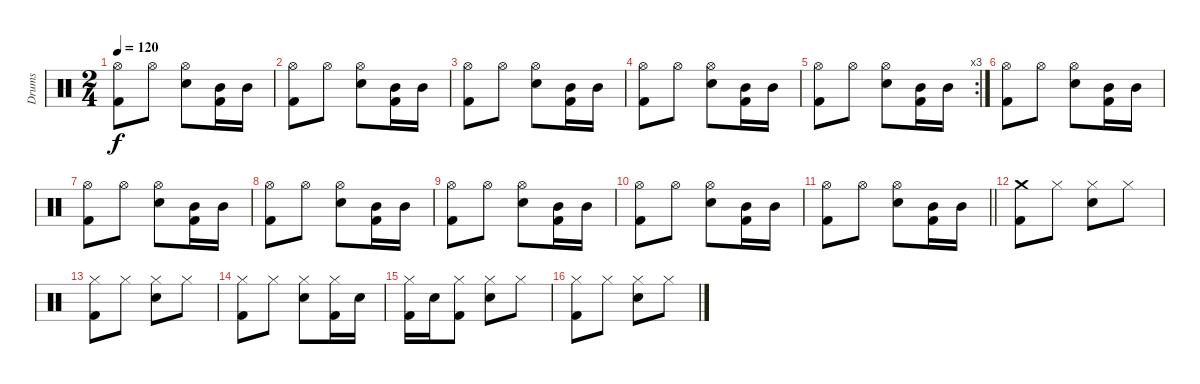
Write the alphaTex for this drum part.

\track ("Drums" "Drums") {instrument percussion}
\staff {score}
\articulation defaults
\ts (2 4)
\tempo 120
\clef neutral
\ks c
("Kick (hit) 2" "Hi-Hat (open)").8{dy f} "Hi-Hat (open)".8 ("Electric Snare (hit)" "Hi-Hat (open)").8 ("Mid Tom (hit)" "Kick (hit) 2").16 "Mid Tom (hit)".16 |
("Kick (hit) 2" "Hi-Hat (open)").8 "Hi-Hat (open)".8 ("Electric Snare (hit)" "Hi-Hat (open)").8 ("Mid Tom (hit)" "Kick (hit) 2").16 "Mid Tom (hit)".16 |
("Kick (hit) 2" "Hi-Hat (open)").8 "Hi-Hat (open)".8 ("Electric Snare (hit)" "Hi-Hat (open)").8 ("Mid Tom (hit)" "Kick (hit) 2").16 "Mid Tom (hit)".16 |
("Kick (hit) 2" "Hi-Hat (open)").8 "Hi-Hat (open)".8 ("Electric Snare (hit)" "Hi-Hat (open)").8 ("Mid Tom (hit)" "Kick (hit) 2").16 "Mid Tom (hit)".16 |
\rc 3
("Kick (hit) 2" "Hi-Hat (open)").8 "Hi-Hat (open)".8 ("Electric Snare (hit)" "Hi-Hat (open)").8 ("Mid Tom (hit)" "Kick (hit) 2").16 "Mid Tom (hit)".16 |
("Kick (hit) 2" "Hi-Hat (open)").8 "Hi-Hat (open)".8 ("Electric Snare (hit)" "Hi-Hat (open)").8 ("Mid Tom (hit)" "Kick (hit) 2").16 "Mid Tom (hit)".16 |
("Kick (hit) 2" "Hi-Hat (open)").8 "Hi-Hat (open)".8 ("Electric Snare (hit)" "Hi-Hat (open)").8 ("Mid Tom (hit)" "Kick (hit) 2").16 "Mid Tom (hit)".16 |
("Kick (hit) 2" "Hi-Hat (open)").8 "Hi-Hat (open)".8 ("Electric Snare (hit)" "Hi-Hat (open)").8 ("Mid Tom (hit)" "Kick (hit) 2").16 "Mid Tom (hit)".16 |
("Kick (hit) 2" "Hi-Hat (open)").8 "Hi-Hat (open)".8 ("Electric Snare (hit)" "Hi-Hat (open)").8 ("Mid Tom (hit)" "Kick (hit) 2").16 "Mid Tom (hit)".16 |
("Kick (hit) 2" "Hi-Hat (open)").8 "Hi-Hat (open)".8 ("Electric Snare (hit)" "Hi-Hat (open)").8 ("Mid Tom (hit)" "Kick (hit) 2").16 "Mid Tom (hit)".16 |
\barLineRight lightlight
("Kick (hit) 2" "Hi-Hat (open)").8 "Hi-Hat (open)".8 ("Electric Snare (hit)" "Hi-Hat (open)").8 ("Mid Tom (hit)" "Kick (hit) 2").16 "Mid Tom (hit)".16 |
("Kick (hit) 2" "Crash medium (hit)").8 "Hi-Hat (closed)".8 ("Electric Snare (hit)" "Hi-Hat (closed)").8 "Hi-Hat (closed)".8 |
("Kick (hit) 2" "Hi-Hat (closed)").8 "Hi-Hat (closed)".8 ("Electric Snare (hit)" "Hi-Hat (closed)").8 "Hi-Hat (closed)".8 |
("Kick (hit) 2" "Hi-Hat (closed)").8 "Hi-Hat (closed)".8 ("Electric Snare (hit)" "Hi-Hat (closed)").8 ("Hi-Hat (closed)" "Kick (hit) 2").16 "Electric Snare (hit)".16 |
("Kick (hit) 2" "Hi-Hat (closed)").16 "Electric Snare (hit)".16 ("Kick (hit) 2" "Hi-Hat (closed)").8 ("Electric Snare (hit)" "Hi-Hat (closed)").8 "Hi-Hat (closed)".8 |
("Kick (hit) 2" "Hi-Hat (closed)").8 "Hi-Hat (closed)".8 ("Electric Snare (hit)" "Hi-Hat (closed)").8 "Hi-Hat (closed)".8
